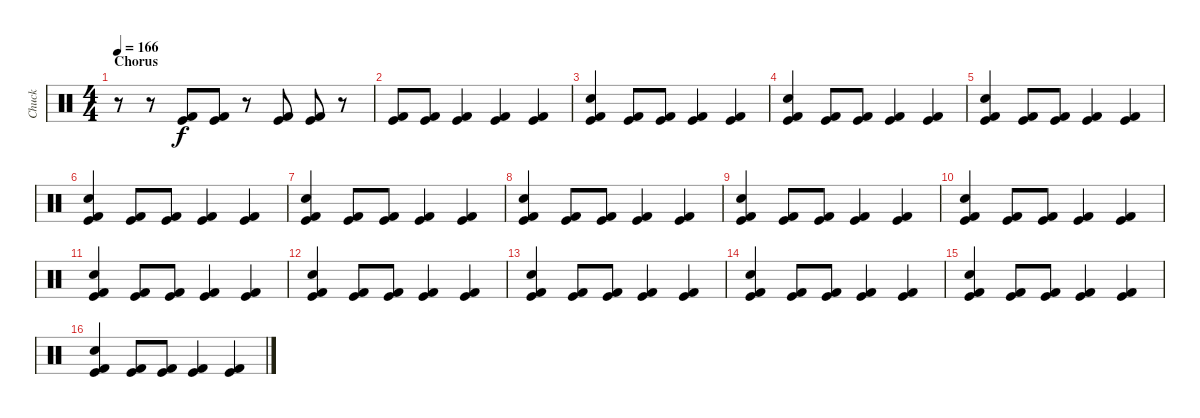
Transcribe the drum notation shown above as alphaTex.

\track ("Chuck" "Chuck") {instrument percussion}
\staff {score}
\articulation defaults
\ts (4 4)
\section ("" "Chorus")
\tempo 166
\clef neutral
\ks c
r.8{dy f} r.8 ("Kick (hit)" "Kick (hit) 2").8 ("Kick (hit)" "Kick (hit) 2").8 r.8 ("Kick (hit)" "Kick (hit) 2").8 ("Kick (hit)" "Kick (hit) 2").8 r.8 |
("Kick (hit)" "Kick (hit) 2").8 ("Kick (hit)" "Kick (hit) 2").8 ("Kick (hit)" "Kick (hit) 2").4 ("Kick (hit)" "Kick (hit) 2").4 ("Kick (hit)" "Kick (hit) 2").4 |
("Kick (hit)" "Kick (hit) 2" "Electric Snare (hit)").4 ("Kick (hit)" "Kick (hit) 2").8 ("Kick (hit)" "Kick (hit) 2").8 ("Kick (hit)" "Kick (hit) 2").4 ("Kick (hit)" "Kick (hit) 2").4 |
("Kick (hit)" "Kick (hit) 2" "Electric Snare (hit)").4 ("Kick (hit)" "Kick (hit) 2").8 ("Kick (hit)" "Kick (hit) 2").8 ("Kick (hit)" "Kick (hit) 2").4 ("Kick (hit)" "Kick (hit) 2").4 |
("Kick (hit)" "Kick (hit) 2" "Electric Snare (hit)").4 ("Kick (hit)" "Kick (hit) 2").8 ("Kick (hit)" "Kick (hit) 2").8 ("Kick (hit)" "Kick (hit) 2").4 ("Kick (hit)" "Kick (hit) 2").4 |
("Kick (hit)" "Kick (hit) 2" "Electric Snare (hit)").4 ("Kick (hit)" "Kick (hit) 2").8 ("Kick (hit)" "Kick (hit) 2").8 ("Kick (hit)" "Kick (hit) 2").4 ("Kick (hit)" "Kick (hit) 2").4 |
("Kick (hit)" "Kick (hit) 2" "Electric Snare (hit)").4 ("Kick (hit)" "Kick (hit) 2").8 ("Kick (hit)" "Kick (hit) 2").8 ("Kick (hit)" "Kick (hit) 2").4 ("Kick (hit)" "Kick (hit) 2").4 |
("Kick (hit)" "Kick (hit) 2" "Electric Snare (hit)").4 ("Kick (hit)" "Kick (hit) 2").8 ("Kick (hit)" "Kick (hit) 2").8 ("Kick (hit)" "Kick (hit) 2").4 ("Kick (hit)" "Kick (hit) 2").4 |
("Kick (hit)" "Kick (hit) 2" "Electric Snare (hit)").4 ("Kick (hit)" "Kick (hit) 2").8 ("Kick (hit)" "Kick (hit) 2").8 ("Kick (hit)" "Kick (hit) 2").4 ("Kick (hit)" "Kick (hit) 2").4 |
("Kick (hit)" "Kick (hit) 2" "Electric Snare (hit)").4 ("Kick (hit)" "Kick (hit) 2").8 ("Kick (hit)" "Kick (hit) 2").8 ("Kick (hit)" "Kick (hit) 2").4 ("Kick (hit)" "Kick (hit) 2").4 |
("Kick (hit)" "Kick (hit) 2" "Electric Snare (hit)").4 ("Kick (hit)" "Kick (hit) 2").8 ("Kick (hit)" "Kick (hit) 2").8 ("Kick (hit)" "Kick (hit) 2").4 ("Kick (hit)" "Kick (hit) 2").4 |
("Kick (hit)" "Kick (hit) 2" "Electric Snare (hit)").4 ("Kick (hit)" "Kick (hit) 2").8 ("Kick (hit)" "Kick (hit) 2").8 ("Kick (hit)" "Kick (hit) 2").4 ("Kick (hit)" "Kick (hit) 2").4 |
("Kick (hit)" "Kick (hit) 2" "Electric Snare (hit)").4 ("Kick (hit)" "Kick (hit) 2").8 ("Kick (hit)" "Kick (hit) 2").8 ("Kick (hit)" "Kick (hit) 2").4 ("Kick (hit)" "Kick (hit) 2").4 |
("Kick (hit)" "Kick (hit) 2" "Electric Snare (hit)").4 ("Kick (hit)" "Kick (hit) 2").8 ("Kick (hit)" "Kick (hit) 2").8 ("Kick (hit)" "Kick (hit) 2").4 ("Kick (hit)" "Kick (hit) 2").4 |
("Kick (hit)" "Kick (hit) 2" "Electric Snare (hit)").4 ("Kick (hit)" "Kick (hit) 2").8 ("Kick (hit)" "Kick (hit) 2").8 ("Kick (hit)" "Kick (hit) 2").4 ("Kick (hit)" "Kick (hit) 2").4 |
("Kick (hit)" "Kick (hit) 2" "Electric Snare (hit)").4 ("Kick (hit)" "Kick (hit) 2").8 ("Kick (hit)" "Kick (hit) 2").8 ("Kick (hit)" "Kick (hit) 2").4 ("Kick (hit)" "Kick (hit) 2").4
